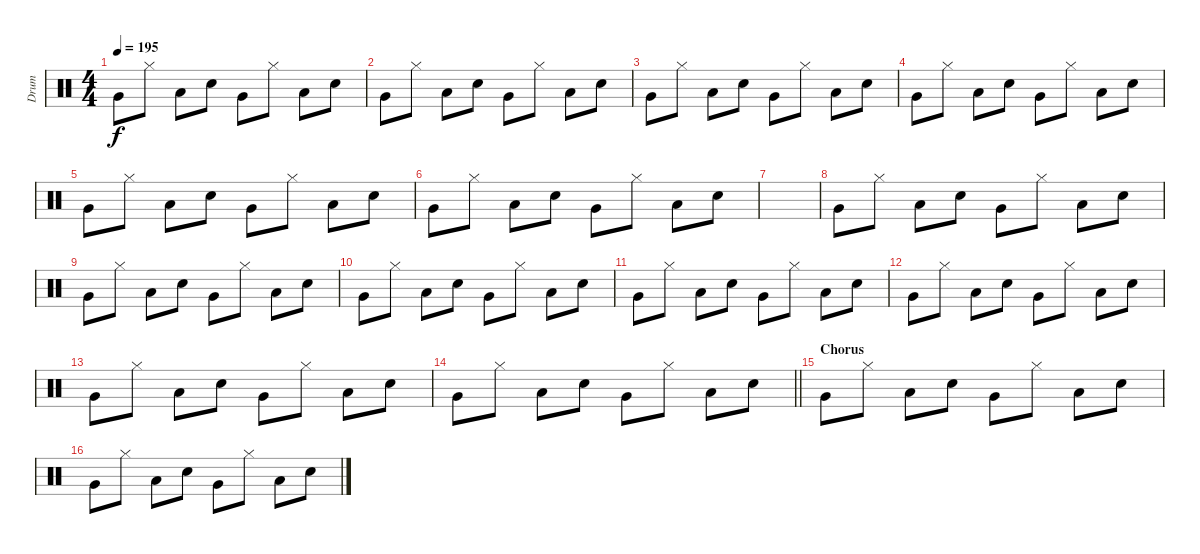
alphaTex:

\track ("Drum" "Drum") {instrument percussion}
\staff {score}
\articulation defaults
\ts (4 4)
\tempo 195
\clef neutral
\ks c "Very Low Tom (hit)".8{dy f} "Hi-Hat (closed)".8 "Low Floor Tom (hit)".8 "Electric Snare (hit)".8 "Very Low Tom (hit)".8 "Hi-Hat (closed)".8 "Low Floor Tom (hit)".8 "Electric Snare (hit)".8
|
"Very Low Tom (hit)".8 "Hi-Hat (closed)".8 "Low Floor Tom (hit)".8 "Electric Snare (hit)".8 "Very Low Tom (hit)".8 "Hi-Hat (closed)".8 "Low Floor Tom (hit)".8 "Electric Snare (hit)".8 |
"Very Low Tom (hit)".8 "Hi-Hat (closed)".8 "Low Floor Tom (hit)".8 "Electric Snare (hit)".8 "Very Low Tom (hit)".8 "Hi-Hat (closed)".8 "Low Floor Tom (hit)".8 "Electric Snare (hit)".8 |
"Very Low Tom (hit)".8 "Hi-Hat (closed)".8 "Low Floor Tom (hit)".8 "Electric Snare (hit)".8 "Very Low Tom (hit)".8 "Hi-Hat (closed)".8 "Low Floor Tom (hit)".8 "Electric Snare (hit)".8 |
"Very Low Tom (hit)".8 "Hi-Hat (closed)".8 "Low Floor Tom (hit)".8 "Electric Snare (hit)".8 "Very Low Tom (hit)".8 "Hi-Hat (closed)".8 "Low Floor Tom (hit)".8 "Electric Snare (hit)".8 |
"Very Low Tom (hit)".8 "Hi-Hat (closed)".8 "Low Floor Tom (hit)".8 "Electric Snare (hit)".8 "Very Low Tom (hit)".8 "Hi-Hat (closed)".8 "Low Floor Tom (hit)".8 "Electric Snare (hit)".8 |
|
"Very Low Tom (hit)".8 "Hi-Hat (closed)".8 "Low Floor Tom (hit)".8 "Electric Snare (hit)".8 "Very Low Tom (hit)".8 "Hi-Hat (closed)".8 "Low Floor Tom (hit)".8 "Electric Snare (hit)".8 |
"Very Low Tom (hit)".8 "Hi-Hat (closed)".8 "Low Floor Tom (hit)".8 "Electric Snare (hit)".8 "Very Low Tom (hit)".8 "Hi-Hat (closed)".8 "Low Floor Tom (hit)".8 "Electric Snare (hit)".8 |
"Very Low Tom (hit)".8 "Hi-Hat (closed)".8 "Low Floor Tom (hit)".8 "Electric Snare (hit)".8 "Very Low Tom (hit)".8 "Hi-Hat (closed)".8 "Low Floor Tom (hit)".8 "Electric Snare (hit)".8 |
"Very Low Tom (hit)".8 "Hi-Hat (closed)".8 "Low Floor Tom (hit)".8 "Electric Snare (hit)".8 "Very Low Tom (hit)".8 "Hi-Hat (closed)".8 "Low Floor Tom (hit)".8 "Electric Snare (hit)".8 |
"Very Low Tom (hit)".8 "Hi-Hat (closed)".8 "Low Floor Tom (hit)".8 "Electric Snare (hit)".8 "Very Low Tom (hit)".8 "Hi-Hat (closed)".8 "Low Floor Tom (hit)".8 "Electric Snare (hit)".8 |
"Very Low Tom (hit)".8 "Hi-Hat (closed)".8 "Low Floor Tom (hit)".8 "Electric Snare (hit)".8 "Very Low Tom (hit)".8 "Hi-Hat (closed)".8 "Low Floor Tom (hit)".8 "Electric Snare (hit)".8 |
\barLineRight lightlight "Very Low Tom (hit)".8 "Hi-Hat (closed)".8 "Low Floor Tom (hit)".8 "Electric Snare (hit)".8 "Very Low Tom (hit)".8 "Hi-Hat (closed)".8 "Low Floor Tom (hit)".8 "Electric Snare (hit)".8
|
\section ("" "Chorus")
"Very Low Tom (hit)".8 "Hi-Hat (closed)".8 "Low Floor Tom (hit)".8 "Electric Snare (hit)".8 "Very Low Tom (hit)".8 "Hi-Hat (closed)".8 "Low Floor Tom (hit)".8 "Electric Snare (hit)".8 |
"Very Low Tom (hit)".8 "Hi-Hat (closed)".8 "Low Floor Tom (hit)".8 "Electric Snare (hit)".8 "Very Low Tom (hit)".8 "Hi-Hat (closed)".8 "Low Floor Tom (hit)".8 "Electric Snare (hit)".8
